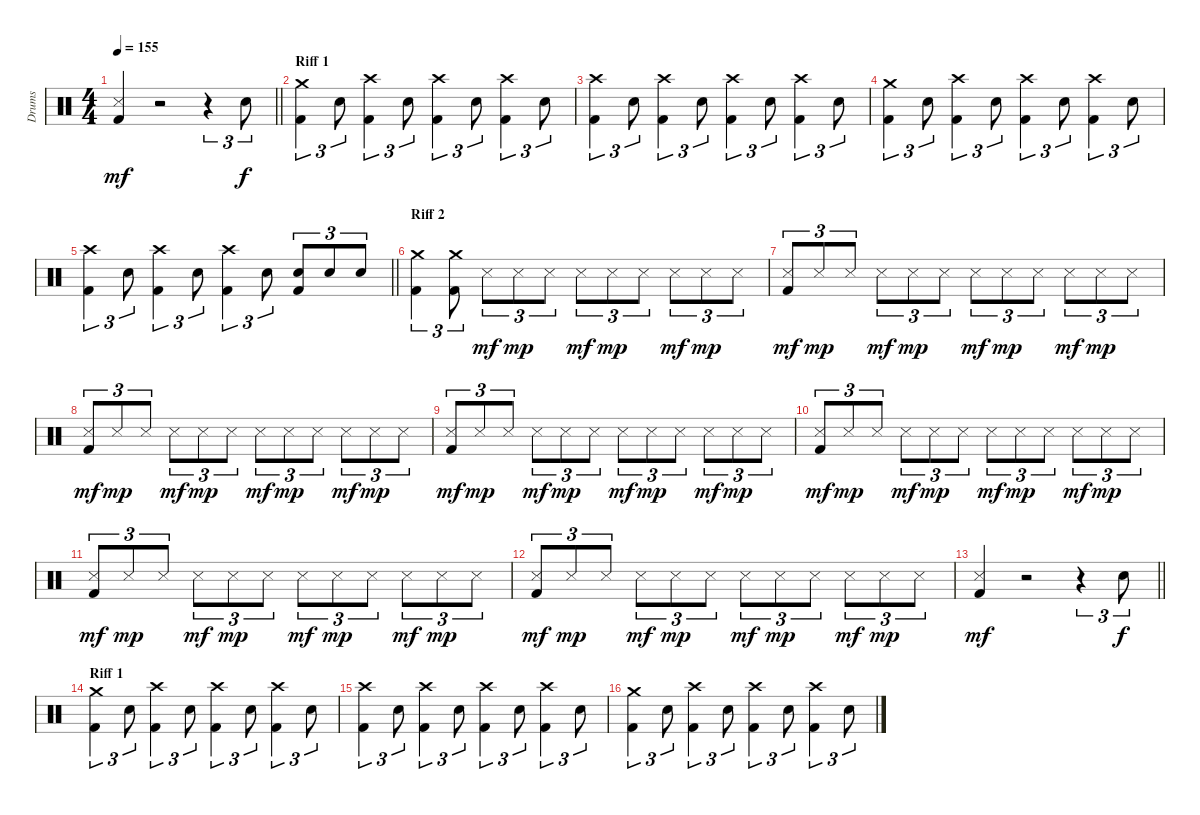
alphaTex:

\track ("Drums" "Drums") {instrument percussion}
\staff {score}
\articulation defaults
\ts (4 4)
\tempo 155
\clef neutral
\barLineRight lightlight
\ks c
("Snare (side stick) 3" "Kick (hit) 2").4{dy mf} r.2 r.4{tu (3 2)} "Electric Snare (hit)".8{tu (3 2) dy f} |
\section ("" "Riff 1")
("Crash medium (hit)" "Kick (hit) 2").4{tu (3 2)} "Electric Snare (hit)".8{tu (3 2)} ("Kick (hit) 2" "Crash high (hit)").4{tu (3 2)} "Electric Snare (hit)".8{tu (3 2)} ("Kick (hit) 2" "Crash high (hit)").4{tu (3 2)} "Electric Snare (hit)".8{tu (3 2)} ("Kick (hit) 2" "Crash high (hit)").4{tu (3 2)} "Electric Snare (hit)".8{tu (3 2)} |
("Kick (hit) 2" "Crash high (hit)").4{tu (3 2)} "Electric Snare (hit)".8{tu (3 2)} ("Kick (hit) 2" "Crash high (hit)").4{tu (3 2)} "Electric Snare (hit)".8{tu (3 2)} ("Kick (hit) 2" "Crash high (hit)").4{tu (3 2)} "Electric Snare (hit)".8{tu (3 2)} ("Kick (hit) 2" "Crash high (hit)").4{tu (3 2)} "Electric Snare (hit)".8{tu (3 2)} |
("Kick (hit) 2" "Crash medium (hit)").4{tu (3 2)} "Electric Snare (hit)".8{tu (3 2)} ("Kick (hit) 2" "Crash high (hit)").4{tu (3 2)} "Electric Snare (hit)".8{tu (3 2)} ("Kick (hit) 2" "Crash high (hit)").4{tu (3 2)} "Electric Snare (hit)".8{tu (3 2)} ("Kick (hit) 2" "Crash high (hit)").4{tu (3 2)} "Electric Snare (hit)".8{tu (3 2)} |
\barLineRight lightlight
("Kick (hit) 2" "Crash high (hit)").4{tu (3 2)} "Electric Snare (hit)".8{tu (3 2)} ("Kick (hit) 2" "Crash high (hit)").4{tu (3 2)} "Electric Snare (hit)".8{tu (3 2)} ("Kick (hit) 2" "Crash high (hit)").4{tu (3 2)} "Electric Snare (hit)".8{tu (3 2)} ("Electric Snare (hit)" "Kick (hit) 2").8{tu (3 2)} "Electric Snare (hit)".8{tu (3 2)} "Electric Snare (hit)".8{tu (3 2)} |
\section ("" "Riff 2")
("Crash medium (hit)" "Kick (hit) 2").4{tu (3 2)} ("Kick (hit) 2" "Crash medium (hit)").8{tu (3 2)} "Snare (side stick) 3".8{tu (3 2) dy mf} "Snare (side stick) 3".8{tu (3 2) dy mp} "Snare (side stick) 3".8{tu (3 2)} "Snare (side stick) 3".8{tu (3 2) dy mf} "Snare (side stick) 3".8{tu (3 2) dy mp} "Snare (side stick) 3".8{tu (3 2)} "Snare (side stick) 3".8{tu (3 2) dy mf} "Snare (side stick) 3".8{tu (3 2) dy mp} "Snare (side stick) 3".8{tu (3 2)} |
("Snare (side stick) 3" "Kick (hit) 2").8{tu (3 2) dy mf} "Snare (side stick) 3".8{tu (3 2) dy mp} "Snare (side stick) 3".8{tu (3 2)} "Snare (side stick) 3".8{tu (3 2) dy mf} "Snare (side stick) 3".8{tu (3 2) dy mp} "Snare (side stick) 3".8{tu (3 2)} "Snare (side stick) 3".8{tu (3 2) dy mf} "Snare (side stick) 3".8{tu (3 2) dy mp} "Snare (side stick) 3".8{tu (3 2)} "Snare (side stick) 3".8{tu (3 2) dy mf} "Snare (side stick) 3".8{tu (3 2) dy mp} "Snare (side stick) 3".8{tu (3 2)} |
("Snare (side stick) 3" "Kick (hit) 2").8{tu (3 2) dy mf} "Snare (side stick) 3".8{tu (3 2) dy mp} "Snare (side stick) 3".8{tu (3 2)} "Snare (side stick) 3".8{tu (3 2) dy mf} "Snare (side stick) 3".8{tu (3 2) dy mp} "Snare (side stick) 3".8{tu (3 2)} "Snare (side stick) 3".8{tu (3 2) dy mf} "Snare (side stick) 3".8{tu (3 2) dy mp} "Snare (side stick) 3".8{tu (3 2)} "Snare (side stick) 3".8{tu (3 2) dy mf} "Snare (side stick) 3".8{tu (3 2) dy mp} "Snare (side stick) 3".8{tu (3 2)} |
("Snare (side stick) 3" "Kick (hit) 2").8{tu (3 2) dy mf} "Snare (side stick) 3".8{tu (3 2) dy mp} "Snare (side stick) 3".8{tu (3 2)} "Snare (side stick) 3".8{tu (3 2) dy mf} "Snare (side stick) 3".8{tu (3 2) dy mp} "Snare (side stick) 3".8{tu (3 2)} "Snare (side stick) 3".8{tu (3 2) dy mf} "Snare (side stick) 3".8{tu (3 2) dy mp} "Snare (side stick) 3".8{tu (3 2)} "Snare (side stick) 3".8{tu (3 2) dy mf} "Snare (side stick) 3".8{tu (3 2) dy mp} "Snare (side stick) 3".8{tu (3 2)} |
("Snare (side stick) 3" "Kick (hit) 2").8{tu (3 2) dy mf} "Snare (side stick) 3".8{tu (3 2) dy mp} "Snare (side stick) 3".8{tu (3 2)} "Snare (side stick) 3".8{tu (3 2) dy mf} "Snare (side stick) 3".8{tu (3 2) dy mp} "Snare (side stick) 3".8{tu (3 2)} "Snare (side stick) 3".8{tu (3 2) dy mf} "Snare (side stick) 3".8{tu (3 2) dy mp} "Snare (side stick) 3".8{tu (3 2)} "Snare (side stick) 3".8{tu (3 2) dy mf} "Snare (side stick) 3".8{tu (3 2) dy mp} "Snare (side stick) 3".8{tu (3 2)} |
("Snare (side stick) 3" "Kick (hit) 2").8{tu (3 2) dy mf} "Snare (side stick) 3".8{tu (3 2) dy mp} "Snare (side stick) 3".8{tu (3 2)} "Snare (side stick) 3".8{tu (3 2) dy mf} "Snare (side stick) 3".8{tu (3 2) dy mp} "Snare (side stick) 3".8{tu (3 2)} "Snare (side stick) 3".8{tu (3 2) dy mf} "Snare (side stick) 3".8{tu (3 2) dy mp} "Snare (side stick) 3".8{tu (3 2)} "Snare (side stick) 3".8{tu (3 2) dy mf} "Snare (side stick) 3".8{tu (3 2) dy mp} "Snare (side stick) 3".8{tu (3 2)} |
("Snare (side stick) 3" "Kick (hit) 2").8{tu (3 2) dy mf} "Snare (side stick) 3".8{tu (3 2) dy mp} "Snare (side stick) 3".8{tu (3 2)} "Snare (side stick) 3".8{tu (3 2) dy mf} "Snare (side stick) 3".8{tu (3 2) dy mp} "Snare (side stick) 3".8{tu (3 2)} "Snare (side stick) 3".8{tu (3 2) dy mf} "Snare (side stick) 3".8{tu (3 2) dy mp} "Snare (side stick) 3".8{tu (3 2)} "Snare (side stick) 3".8{tu (3 2) dy mf} "Snare (side stick) 3".8{tu (3 2) dy mp} "Snare (side stick) 3".8{tu (3 2)} |
\barLineRight lightlight
("Snare (side stick) 3" "Kick (hit) 2").4{dy mf} r.2 r.4{tu (3 2)} "Electric Snare (hit)".8{tu (3 2) dy f} |
\section ("" "Riff 1")
("Crash medium (hit)" "Kick (hit) 2").4{tu (3 2)} "Electric Snare (hit)".8{tu (3 2)} ("Kick (hit) 2" "Crash high (hit)").4{tu (3 2)} "Electric Snare (hit)".8{tu (3 2)} ("Kick (hit) 2" "Crash high (hit)").4{tu (3 2)} "Electric Snare (hit)".8{tu (3 2)} ("Kick (hit) 2" "Crash high (hit)").4{tu (3 2)} "Electric Snare (hit)".8{tu (3 2)} |
("Kick (hit) 2" "Crash high (hit)").4{tu (3 2)} "Electric Snare (hit)".8{tu (3 2)} ("Kick (hit) 2" "Crash high (hit)").4{tu (3 2)} "Electric Snare (hit)".8{tu (3 2)} ("Kick (hit) 2" "Crash high (hit)").4{tu (3 2)} "Electric Snare (hit)".8{tu (3 2)} ("Kick (hit) 2" "Crash high (hit)").4{tu (3 2)} "Electric Snare (hit)".8{tu (3 2)} |
("Kick (hit) 2" "Crash medium (hit)").4{tu (3 2)} "Electric Snare (hit)".8{tu (3 2)} ("Kick (hit) 2" "Crash high (hit)").4{tu (3 2)} "Electric Snare (hit)".8{tu (3 2)} ("Kick (hit) 2" "Crash high (hit)").4{tu (3 2)} "Electric Snare (hit)".8{tu (3 2)} ("Kick (hit) 2" "Crash high (hit)").4{tu (3 2)} "Electric Snare (hit)".8{tu (3 2)}
